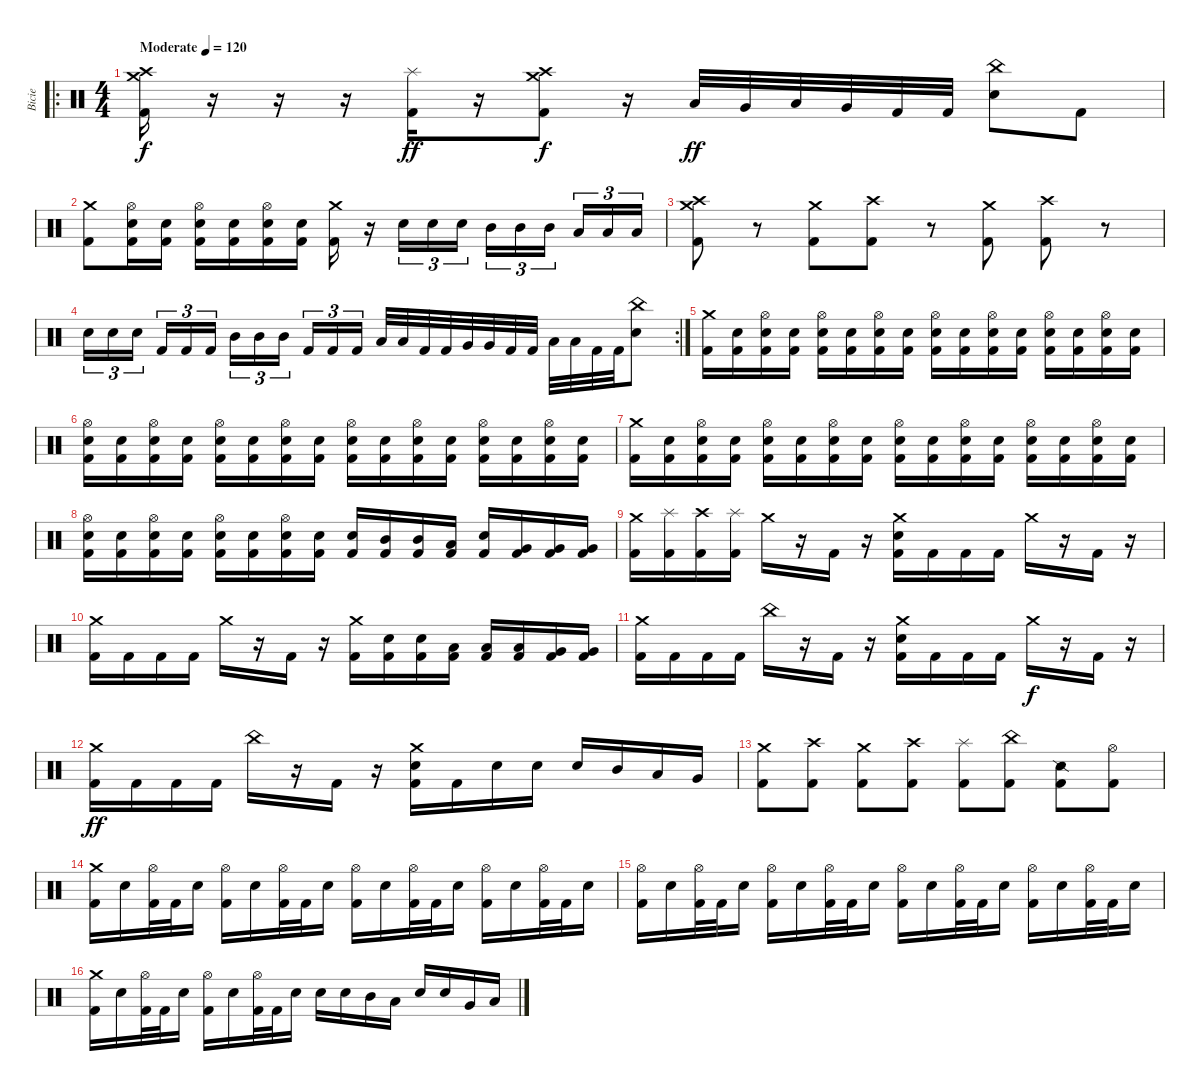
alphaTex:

\track ("Bicie" "Bicie") {instrument percussion}
\staff {score}
\articulation defaults
\ro
\ts (4 4)
\tempo (120 "Moderate")
\clef neutral
\ks c
("Crash medium (hit)" "Crash high (hit)" "Kick (hit) 2").16{dy f} r.16 r.16 r.16 ("Splash (hit)" "Kick (hit) 2").16{dy ff} r.16 ("Crash medium (hit)" "Crash high (hit)" "Kick (hit) 2").8{dy f} r.16 "Low Tom (hit)".32{dy ff} "Very Low Tom (hit)".32 "Low Tom (hit)".32 "Very Low Tom (hit)".32 "Kick (hit) 2".32 "Kick (hit) 2".32 ("China (hit)" "Snare (hit) 2").8 "Kick (hit) 2".8 |
("Crash medium (hit)" "Kick (hit) 2").8 ("Hi-Hat (open)" "Snare (hit) 2" "Kick (hit) 2").16 ("Snare (hit) 2" "Kick (hit) 2").16 ("Hi-Hat (open)" "Snare (hit) 2" "Kick (hit) 2").16 ("Snare (hit) 2" "Kick (hit) 2").16 ("Hi-Hat (open)" "Snare (hit) 2" "Kick (hit) 2").16 ("Snare (hit) 2" "Kick (hit) 2").16 ("Crash medium (hit)" "Kick (hit) 2").16 r.16 "Snare (hit) 2".16{tu (3 2)} "Snare (hit) 2".16{tu (3 2)} "Snare (hit) 2".16{tu (3 2)} "Mid Tom (hit)".16{tu (3 2)} "Mid Tom (hit)".16{tu (3 2)} "Mid Tom (hit)".16{tu (3 2) beam splitsecondary} "Low Tom (hit)".16{tu (3 2)} "Low Tom (hit)".16{tu (3 2)} "Low Tom (hit)".16{tu (3 2)} |
("Crash medium (hit)" "Crash high (hit)" "Kick (hit) 2").8 r.8 ("Crash medium (hit)" "Kick (hit) 2").8 ("Crash high (hit)" "Kick (hit) 2").8 r.8 ("Crash medium (hit)" "Kick (hit) 2").8 ("Crash high (hit)" "Kick (hit) 2").8 r.8 |
\rc 2 "Snare (hit) 2".16{tu (3 2)} "Snare (hit) 2".16{tu (3 2)} "Snare (hit) 2".16{tu (3 2) beam splitsecondary} "Kick (hit) 2".16{tu (3 2)} "Kick (hit) 2".16{tu (3 2)} "Kick (hit) 2".16{tu (3 2)} "Mid Tom (hit)".16{tu (3 2)} "Mid Tom (hit)".16{tu (3 2)} "Mid Tom (hit)".16{tu (3 2) beam splitsecondary} "Kick (hit) 2".16{tu (3 2)} "Kick (hit) 2".16{tu (3 2)} "Kick (hit) 2".16{tu (3 2)} "Low Tom (hit)".32 "Low Tom (hit)".32 "Kick (hit) 2".32 "Kick (hit) 2".32 "Very Low Tom (hit)".32 "Very Low Tom (hit)".32 "Kick (hit) 2".32 "Kick (hit) 2".32 "Low Tom (hit)".32 "Low Tom (hit)".32 "Kick (hit) 2".32 "Kick (hit) 2".32
("China (hit)" "Snare (hit) 2").8 |
("Crash medium (hit)" "Kick (hit) 2").16 ("Snare (hit) 2" "Kick (hit) 2").16 ("Hi-Hat (open)" "Snare (hit) 2" "Kick (hit) 2").16 ("Snare (hit) 2" "Kick (hit) 2").16 ("Hi-Hat (open)" "Snare (hit) 2" "Kick (hit) 2").16 ("Snare (hit) 2" "Kick (hit) 2").16 ("Hi-Hat (open)" "Snare (hit) 2" "Kick (hit) 2").16 ("Snare (hit) 2" "Kick (hit) 2").16 ("Hi-Hat (open)" "Snare (hit) 2" "Kick (hit) 2").16 ("Snare (hit) 2" "Kick (hit) 2").16 ("Hi-Hat (open)" "Snare (hit) 2" "Kick (hit) 2").16 ("Snare (hit) 2" "Kick (hit) 2").16 ("Hi-Hat (open)" "Snare (hit) 2" "Kick (hit) 2").16 ("Snare (hit) 2" "Kick (hit) 2").16 ("Hi-Hat (open)" "Snare (hit) 2" "Kick (hit) 2").16 ("Snare (hit) 2" "Kick (hit) 2").16 |
("Hi-Hat (open)" "Snare (hit) 2" "Kick (hit) 2").16 ("Snare (hit) 2" "Kick (hit) 2").16 ("Hi-Hat (open)" "Snare (hit) 2" "Kick (hit) 2").16 ("Snare (hit) 2" "Kick (hit) 2").16 ("Hi-Hat (open)" "Snare (hit) 2" "Kick (hit) 2").16 ("Snare (hit) 2" "Kick (hit) 2").16 ("Hi-Hat (open)" "Snare (hit) 2" "Kick (hit) 2").16 ("Snare (hit) 2" "Kick (hit) 2").16 ("Hi-Hat (open)" "Snare (hit) 2" "Kick (hit) 2").16 ("Snare (hit) 2" "Kick (hit) 2").16 ("Hi-Hat (open)" "Snare (hit) 2" "Kick (hit) 2").16 ("Snare (hit) 2" "Kick (hit) 2").16 ("Hi-Hat (open)" "Snare (hit) 2" "Kick (hit) 2").16 ("Snare (hit) 2" "Kick (hit) 2").16 ("Hi-Hat (open)" "Snare (hit) 2" "Kick (hit) 2").16 ("Snare (hit) 2" "Kick (hit) 2").16 |
("Crash medium (hit)" "Kick (hit) 2").16 ("Snare (hit) 2" "Kick (hit) 2").16 ("Hi-Hat (open)" "Snare (hit) 2" "Kick (hit) 2").16 ("Snare (hit) 2" "Kick (hit) 2").16 ("Hi-Hat (open)" "Snare (hit) 2" "Kick (hit) 2").16 ("Snare (hit) 2" "Kick (hit) 2").16 ("Hi-Hat (open)" "Snare (hit) 2" "Kick (hit) 2").16 ("Snare (hit) 2" "Kick (hit) 2").16 ("Hi-Hat (open)" "Snare (hit) 2" "Kick (hit) 2").16 ("Snare (hit) 2" "Kick (hit) 2").16 ("Hi-Hat (open)" "Snare (hit) 2" "Kick (hit) 2").16 ("Snare (hit) 2" "Kick (hit) 2").16 ("Hi-Hat (open)" "Snare (hit) 2" "Kick (hit) 2").16 ("Snare (hit) 2" "Kick (hit) 2").16 ("Hi-Hat (open)" "Snare (hit) 2" "Kick (hit) 2").16 ("Snare (hit) 2" "Kick (hit) 2").16 |
("Hi-Hat (open)" "Snare (hit) 2" "Kick (hit) 2").16 ("Snare (hit) 2" "Kick (hit) 2").16 ("Hi-Hat (open)" "Snare (hit) 2" "Kick (hit) 2").16 ("Snare (hit) 2" "Kick (hit) 2").16 ("Hi-Hat (open)" "Snare (hit) 2" "Kick (hit) 2").16 ("Snare (hit) 2" "Kick (hit) 2").16 ("Hi-Hat (open)" "Snare (hit) 2" "Kick (hit) 2").16 ("Snare (hit) 2" "Kick (hit) 2").16 ("Snare (hit) 2" "Kick (hit) 2").16 ("Mid Tom (hit)" "Kick (hit) 2").16 ("Mid Tom (hit)" "Kick (hit) 2").16 ("Low Tom (hit)" "Kick (hit) 2").16 ("Snare (hit) 2" "Kick (hit) 2").16 ("Very Low Tom (hit)" "Kick (hit) 2").16 ("Very Low Tom (hit)" "Kick (hit) 2").16 ("Very Low Tom (hit)" "Kick (hit) 2").16 |
("Crash medium (hit)" "Kick (hit) 2").16 ("Splash (hit)" "Kick (hit) 2").16 ("Crash high (hit)" "Kick (hit) 2").16 ("Splash (hit)" "Kick (hit) 2").16 "Crash medium (hit)".16 r.16 "Kick (hit) 2".16 r.16 ("Crash medium (hit)" "Snare (hit) 2" "Kick (hit) 2").16 "Kick (hit) 2".16 "Kick (hit) 2".16 "Kick (hit) 2".16 "Crash medium (hit)".16 r.16 "Kick (hit) 2".16 r.16 |
("Crash medium (hit)" "Kick (hit) 2").16 "Kick (hit) 2".16 "Kick (hit) 2".16 "Kick (hit) 2".16 "Crash medium (hit)".16 r.16 "Kick (hit) 2".16 r.16 ("Crash medium (hit)" "Kick (hit) 2").16 ("Snare (hit) 2" "Kick (hit) 2").16 ("Snare (hit) 2" "Kick (hit) 2").16 ("Low Tom (hit)" "Kick (hit) 2").16 ("Low Tom (hit)" "Kick (hit) 2").16 ("Low Tom (hit)" "Kick (hit) 2").16 ("Very Low Tom (hit)" "Kick (hit) 2").16 ("Very Low Tom (hit)" "Kick (hit) 2").16 |
("Crash medium (hit)" "Kick (hit) 2").16 "Kick (hit) 2".16 "Kick (hit) 2".16 "Kick (hit) 2".16 "China (hit)".16 r.16 "Kick (hit) 2".16 r.16 ("Crash medium (hit)" "Snare (hit) 2" "Kick (hit) 2").16 "Kick (hit) 2".16 "Kick (hit) 2".16 "Kick (hit) 2".16 "Crash medium (hit)".16{dy f} r.16 "Kick (hit) 2".16 r.16 |
("Crash medium (hit)" "Kick (hit) 2").16{dy ff} "Kick (hit) 2".16 "Kick (hit) 2".16 "Kick (hit) 2".16 "China (hit)".16 r.16 "Kick (hit) 2".16 r.16 ("Crash medium (hit)" "Snare (hit) 2" "Kick (hit) 2").16 "Kick (hit) 2".16 "Snare (hit) 2".16 "Snare (hit) 2".16 "Snare (hit) 2".16 "Mid Tom (hit)".16 "Low Tom (hit)".16 "Very Low Tom (hit)".16 |
("Crash medium (hit)" "Kick (hit) 2").8 ("Crash high (hit)" "Kick (hit) 2").8 ("Crash medium (hit)" "Kick (hit) 2").8 ("Crash high (hit)" "Kick (hit) 2").8 ("Splash (hit)" "Kick (hit) 2").8 ("China (hit)" "Kick (hit) 2").8 ("Snare (side stick) 2" "Kick (hit) 2").8 ("Hi-Hat (open)" "Kick (hit) 2").8 |
("Crash medium (hit)" "Kick (hit) 2").16 "Snare (hit) 2".16 ("Hi-Hat (open)" "Kick (hit) 2").32 "Kick (hit) 2".32 "Snare (hit) 2".16 ("Hi-Hat (open)" "Kick (hit) 2").16 "Snare (hit) 2".16 ("Hi-Hat (open)" "Kick (hit) 2").32 "Kick (hit) 2".32 "Snare (hit) 2".16 ("Hi-Hat (open)" "Kick (hit) 2").16 "Snare (hit) 2".16 ("Hi-Hat (open)" "Kick (hit) 2").32 "Kick (hit) 2".32 "Snare (hit) 2".16 ("Hi-Hat (open)" "Kick (hit) 2").16 "Snare (hit) 2".16 ("Hi-Hat (open)" "Kick (hit) 2").32 "Kick (hit) 2".32 "Snare (hit) 2".16 |
("Hi-Hat (open)" "Kick (hit) 2").16 "Snare (hit) 2".16 ("Hi-Hat (open)" "Kick (hit) 2").32 "Kick (hit) 2".32 "Snare (hit) 2".16 ("Hi-Hat (open)" "Kick (hit) 2").16 "Snare (hit) 2".16 ("Hi-Hat (open)" "Kick (hit) 2").32 "Kick (hit) 2".32 "Snare (hit) 2".16 ("Hi-Hat (open)" "Kick (hit) 2").16 "Snare (hit) 2".16 ("Hi-Hat (open)" "Kick (hit) 2").32 "Kick (hit) 2".32 "Snare (hit) 2".16 ("Hi-Hat (open)" "Kick (hit) 2").16 "Snare (hit) 2".16 ("Hi-Hat (open)" "Kick (hit) 2").32 "Kick (hit) 2".32 "Snare (hit) 2".16 |
("Crash medium (hit)" "Kick (hit) 2").16 "Snare (hit) 2".16 ("Hi-Hat (open)" "Kick (hit) 2").32 "Kick (hit) 2".32 "Snare (hit) 2".16 ("Hi-Hat (open)" "Kick (hit) 2").16 "Snare (hit) 2".16 ("Hi-Hat (open)" "Kick (hit) 2").32 "Kick (hit) 2".32 "Snare (hit) 2".16 "Snare (hit) 2".16 "Snare (hit) 2".16 "Mid Tom (hit)".16 "Low Tom (hit)".16 "Snare (hit) 2".16 "Snare (hit) 2".16 "Very Low Tom (hit)".16 "Low Floor Tom (hit)".16
